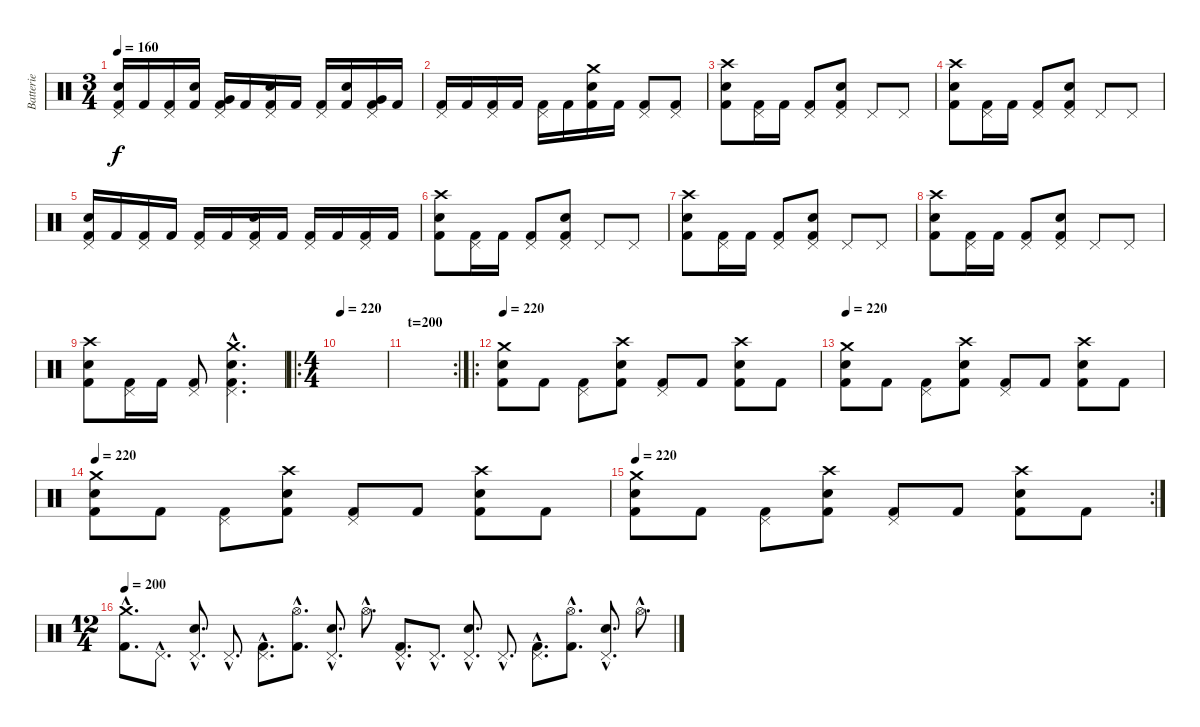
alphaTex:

\track ("Batterie" "Batterie") {instrument percussion}
\staff {score}
\articulation defaults
\ts (3 4)
\tempo 160
\clef neutral
\ks c
("Pedal Hi-Hat (hit)" "Electric Snare (hit)" "Kick (hit) 2").16{dy f} "Kick (hit) 2".16 ("Pedal Hi-Hat (hit)" "Kick (hit) 2").16 ("Electric Snare (hit)" "Kick (hit) 2").16 ("Pedal Hi-Hat (hit)" "Very Low Tom (hit)" "Kick (hit) 2").16 "Kick (hit) 2".16 ("Pedal Hi-Hat (hit)" "Electric Snare (hit)" "Kick (hit) 2").16 "Kick (hit) 2".16 ("Pedal Hi-Hat (hit)" "Kick (hit) 2").16 ("Electric Snare (hit)" "Kick (hit) 2").16 ("Pedal Hi-Hat (hit)" "Very Low Tom (hit)" "Kick (hit) 2").16 "Kick (hit) 2".16 |
("Pedal Hi-Hat (hit)" "Kick (hit) 2").16 "Kick (hit) 2".16 ("Pedal Hi-Hat (hit)" "Kick (hit) 2").16 "Kick (hit) 2".16 ("Pedal Hi-Hat (hit)" "Kick (hit) 2").16 "Kick (hit) 2".16 ("Crash medium (hit)" "Electric Snare (hit)" "Kick (hit) 2").16 "Kick (hit) 2".16 ("Pedal Hi-Hat (hit)" "Kick (hit) 2").8 ("Pedal Hi-Hat (hit)" "Kick (hit) 2").8 |
("Crash high (hit)" "Electric Snare (hit)" "Kick (hit) 2").8 ("Pedal Hi-Hat (hit)" "Kick (hit) 2").16 "Kick (hit) 2".16 ("Pedal Hi-Hat (hit)" "Kick (hit) 2").8 ("Pedal Hi-Hat (hit)" "Kick (hit) 2" "Electric Snare (hit)").8 "Pedal Hi-Hat (hit)".8 "Pedal Hi-Hat (hit)".8 |
("Crash high (hit)" "Electric Snare (hit)" "Kick (hit) 2").8 ("Pedal Hi-Hat (hit)" "Kick (hit) 2").16 "Kick (hit) 2".16 ("Pedal Hi-Hat (hit)" "Kick (hit) 2").8 ("Pedal Hi-Hat (hit)" "Kick (hit) 2" "Electric Snare (hit)").8 "Pedal Hi-Hat (hit)".8 "Pedal Hi-Hat (hit)".8 |
("Pedal Hi-Hat (hit)" "Electric Snare (hit)" "Kick (hit) 2").16 "Kick (hit) 2".16 ("Pedal Hi-Hat (hit)" "Kick (hit) 2").16 "Kick (hit) 2".16 ("Pedal Hi-Hat (hit)" "Kick (hit) 2").16 "Kick (hit) 2".16 ("Pedal Hi-Hat (hit)" "Electric Snare (hit)" "Kick (hit) 2").16 "Kick (hit) 2".16 ("Pedal Hi-Hat (hit)" "Kick (hit) 2").16 "Kick (hit) 2".16 ("Pedal Hi-Hat (hit)" "Kick (hit) 2").16 "Kick (hit) 2".16 |
("Crash high (hit)" "Electric Snare (hit)" "Kick (hit) 2").8 ("Pedal Hi-Hat (hit)" "Kick (hit) 2").16 "Kick (hit) 2".16 ("Pedal Hi-Hat (hit)" "Kick (hit) 2").8 ("Pedal Hi-Hat (hit)" "Kick (hit) 2" "Electric Snare (hit)").8 "Pedal Hi-Hat (hit)".8 "Pedal Hi-Hat (hit)".8 |
("Crash high (hit)" "Electric Snare (hit)" "Kick (hit) 2").8 ("Pedal Hi-Hat (hit)" "Kick (hit) 2").16 "Kick (hit) 2".16 ("Pedal Hi-Hat (hit)" "Kick (hit) 2").8 ("Pedal Hi-Hat (hit)" "Kick (hit) 2" "Electric Snare (hit)").8 "Pedal Hi-Hat (hit)".8 "Pedal Hi-Hat (hit)".8 |
("Crash high (hit)" "Electric Snare (hit)" "Kick (hit) 2").8 ("Pedal Hi-Hat (hit)" "Kick (hit) 2").16 "Kick (hit) 2".16 ("Pedal Hi-Hat (hit)" "Kick (hit) 2").8 ("Pedal Hi-Hat (hit)" "Kick (hit) 2" "Electric Snare (hit)").8 "Pedal Hi-Hat (hit)".8 "Pedal Hi-Hat (hit)".8 |
("Crash high (hit)" "Electric Snare (hit)" "Kick (hit) 2").8 ("Pedal Hi-Hat (hit)" "Kick (hit) 2").16 "Kick (hit) 2".16 ("Pedal Hi-Hat (hit)" "Kick (hit) 2").8 ("Crash medium (hit)"{hac} "Pedal Hi-Hat (hit)"{hac} "Kick (hit) 2"{hac} "Electric Snare (hit)"{hac}).4{d} |
\ro
\ts (4 4)
\tempo 200
\tempo 220
|
\rc 2
\section ("" "t=200")
|
\ro
\tempo 220
("Crash medium (hit)" "Electric Snare (hit)" "Kick (hit) 2").8 "Kick (hit) 2".8 ("Pedal Hi-Hat (hit)" "Kick (hit) 2").8 ("Crash high (hit)" "Electric Snare (hit)" "Kick (hit) 2").8 ("Pedal Hi-Hat (hit)" "Kick (hit) 2").8 "Kick (hit) 2".8 ("Crash high (hit)" "Electric Snare (hit)" "Kick (hit) 2").8 "Kick (hit) 2".8 |
\tempo 220
("Crash medium (hit)" "Electric Snare (hit)" "Kick (hit) 2").8 "Kick (hit) 2".8 ("Pedal Hi-Hat (hit)" "Kick (hit) 2").8 ("Crash high (hit)" "Electric Snare (hit)" "Kick (hit) 2").8 ("Pedal Hi-Hat (hit)" "Kick (hit) 2").8 "Kick (hit) 2".8 ("Crash high (hit)" "Electric Snare (hit)" "Kick (hit) 2").8 "Kick (hit) 2".8 |
\tempo 220
("Crash medium (hit)" "Electric Snare (hit)" "Kick (hit) 2").8 "Kick (hit) 2".8 ("Pedal Hi-Hat (hit)" "Kick (hit) 2").8 ("Crash high (hit)" "Electric Snare (hit)" "Kick (hit) 2").8 ("Pedal Hi-Hat (hit)" "Kick (hit) 2").8 "Kick (hit) 2".8 ("Crash high (hit)" "Electric Snare (hit)" "Kick (hit) 2").8 "Kick (hit) 2".8 |
\rc 2
\tempo 220
("Crash medium (hit)" "Electric Snare (hit)" "Kick (hit) 2").8 "Kick (hit) 2".8 ("Pedal Hi-Hat (hit)" "Kick (hit) 2").8 ("Crash high (hit)" "Electric Snare (hit)" "Kick (hit) 2").8 ("Pedal Hi-Hat (hit)" "Kick (hit) 2").8 "Kick (hit) 2".8 ("Crash high (hit)" "Electric Snare (hit)" "Kick (hit) 2").8 "Kick (hit) 2".8 |
\ts (12 4)
\tempo 220
\tempo 200
("Crash medium (hit)"{hac} "Kick (hit) 2"{hac}).8{d} "Pedal Hi-Hat (hit)"{hac}.8{d} ("Pedal Hi-Hat (hit)"{hac} "Electric Snare (hit)"{hac}).8{d} "Pedal Hi-Hat (hit)"{hac}.8{d} ("Pedal Hi-Hat (hit)"{hac} "Kick (hit) 2"{hac}).8{d} ("Hi-Hat (open)"{hac} "Kick (hit) 2"{hac}).8{d} ("Pedal Hi-Hat (hit)"{hac} "Electric Snare (hit)"{hac}).8{d} "Hi-Hat (open)"{hac}.8{d} ("Pedal Hi-Hat (hit)"{hac} "Kick (hit) 2"{hac}).8{d} "Pedal Hi-Hat (hit)"{hac}.8{d} ("Pedal Hi-Hat (hit)"{hac} "Electric Snare (hit)"{hac}).8{d} "Pedal Hi-Hat (hit)"{hac}.8{d} ("Pedal Hi-Hat (hit)"{hac} "Kick (hit) 2"{hac}).8{d} ("Hi-Hat (open)"{hac} "Kick (hit) 2"{hac}).8{d} ("Pedal Hi-Hat (hit)"{hac} "Electric Snare (hit)"{hac}).8{d} "Hi-Hat (open)"{hac}.8{d}
